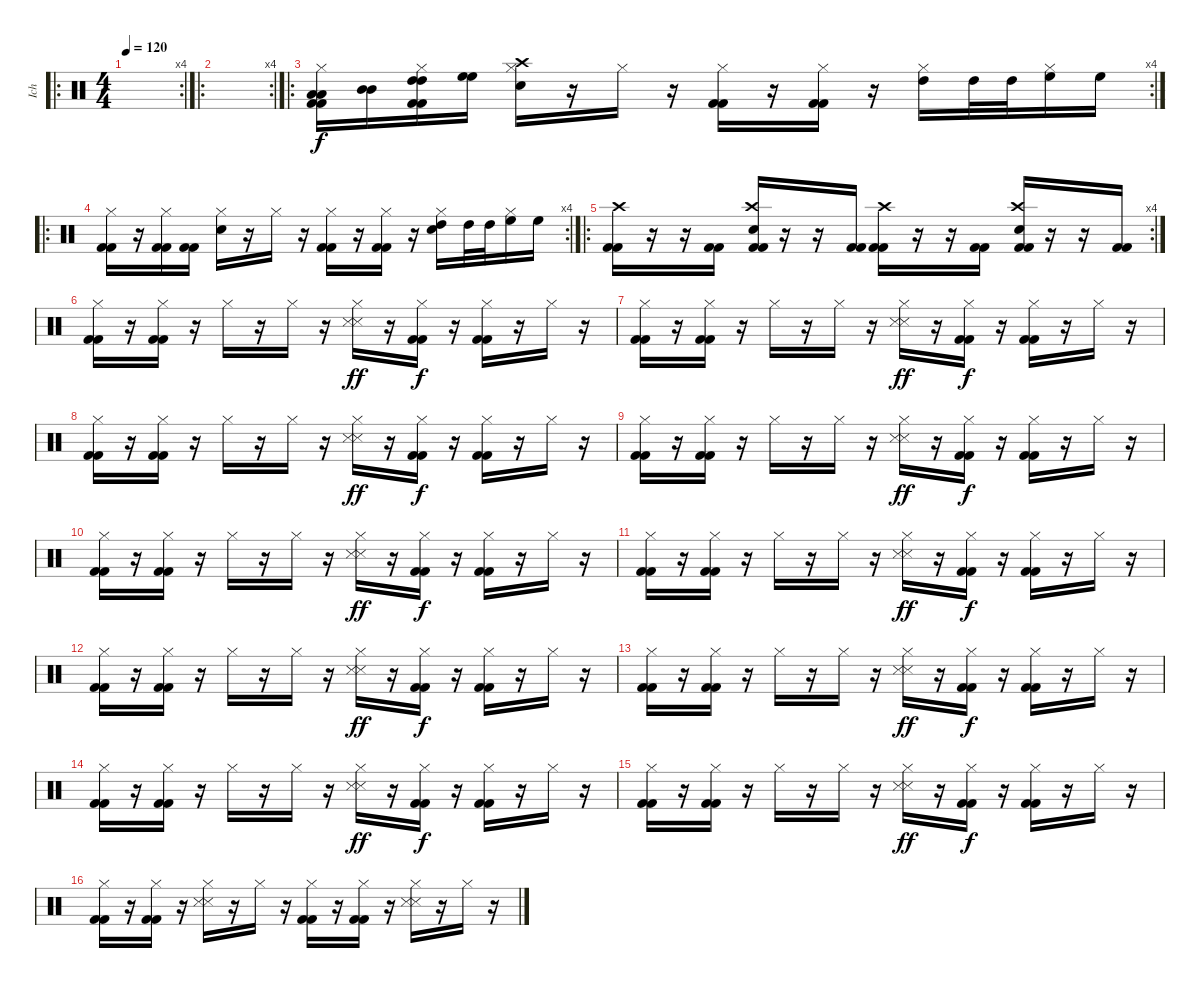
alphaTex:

\track ("Ich" "Ich") {instrument percussion}
\staff {score}
\articulation defaults
\ro
\rc 4
\ts (4 4)
\tempo 120
\clef neutral
\ks c
|
\ro
\rc 4
|
\ro
\rc 4
("Hi-Hat (closed)" "Low Tom (hit)" "Low Tom (hit)" "Kick (hit) 2" "Kick (hit) 2").16 ("Mid Tom (hit)" "Mid Tom (hit)").16 ("Hi-Hat (closed)" "High Tom (hit)" "High Tom (hit)" "Kick (hit) 2" "Kick (hit) 2").16 ("High Floor Tom (hit)" "High Floor Tom (hit)").16 ("Hi-Hat (closed)" "Crash high (hit)" "Snare (hit) 2").16 r.16 "Hi-Hat (closed)".16 r.16 ("Hi-Hat (closed)" "Kick (hit) 2" "Kick (hit) 2").16 r.16 ("Hi-Hat (closed)" "Kick (hit) 2" "Kick (hit) 2").16 r.16 ("Hi-Hat (closed)" "High Tom (hit)").16 "High Tom (hit)".32 "High Tom (hit)".32 ("Hi-Hat (closed)" "High Floor Tom (hit)").16 "High Floor Tom (hit)".16 |
\ro
\rc 4
("Hi-Hat (closed)" "Kick (hit) 2" "Kick (hit) 2").16 r.16 ("Hi-Hat (closed)" "Kick (hit) 2" "Kick (hit) 2").16 ("Kick (hit) 2" "Kick (hit) 2").16 ("Hi-Hat (closed)" "Snare (hit) 2").16 r.16 "Hi-Hat (closed)".16 r.16 ("Hi-Hat (closed)" "Kick (hit) 2" "Kick (hit) 2").16 r.16 ("Hi-Hat (closed)" "Kick (hit) 2" "Kick (hit) 2").16 r.16 ("Hi-Hat (closed)" "High Tom (hit)" "Snare (hit) 2").16 "High Tom (hit)".32 "High Tom (hit)".32 ("Hi-Hat (closed)" "High Floor Tom (hit)").16 "High Floor Tom (hit)".16 |
\ro
\rc 4
("Crash high (hit)" "Kick (hit) 2" "Kick (hit) 2").16 r.16 r.16 ("Kick (hit) 2" "Kick (hit) 2").16 ("Crash high (hit)" "Kick (hit) 2" "Kick (hit) 2" "Snare (hit) 2").16 r.16 r.16 ("Kick (hit) 2" "Kick (hit) 2").16 ("Crash high (hit)" "Kick (hit) 2" "Kick (hit) 2").16 r.16 r.16 ("Kick (hit) 2" "Kick (hit) 2").16 ("Crash high (hit)" "Kick (hit) 2" "Kick (hit) 2" "Snare (hit) 2").16 r.16 r.16 ("Kick (hit) 2" "Kick (hit) 2").16 |
("Hi-Hat (closed)" "Kick (hit) 2" "Kick (hit) 2").16 r.16 ("Hi-Hat (closed)" "Kick (hit) 2" "Kick (hit) 2").16 r.16 "Hi-Hat (closed)".16 r.16 "Hi-Hat (closed)".16 r.16 ("Hi-Hat (closed)" "Snare (side stick) 3" "Snare (side stick) 3").16{dy ff} r.16 ("Hi-Hat (closed)" "Kick (hit) 2" "Kick (hit) 2").16{dy f} r.16 ("Hi-Hat (closed)" "Kick (hit) 2" "Kick (hit) 2").16 r.16 "Hi-Hat (closed)".16 r.16 |
("Hi-Hat (closed)" "Kick (hit) 2" "Kick (hit) 2").16 r.16 ("Hi-Hat (closed)" "Kick (hit) 2" "Kick (hit) 2").16 r.16 "Hi-Hat (closed)".16 r.16 "Hi-Hat (closed)".16 r.16 ("Hi-Hat (closed)" "Snare (side stick) 3" "Snare (side stick) 3").16{dy ff} r.16 ("Hi-Hat (closed)" "Kick (hit) 2" "Kick (hit) 2").16{dy f} r.16 ("Hi-Hat (closed)" "Kick (hit) 2" "Kick (hit) 2").16 r.16 "Hi-Hat (closed)".16 r.16 |
("Hi-Hat (closed)" "Kick (hit) 2" "Kick (hit) 2").16 r.16 ("Hi-Hat (closed)" "Kick (hit) 2" "Kick (hit) 2").16 r.16 "Hi-Hat (closed)".16 r.16 "Hi-Hat (closed)".16 r.16 ("Hi-Hat (closed)" "Snare (side stick) 3" "Snare (side stick) 3").16{dy ff} r.16 ("Hi-Hat (closed)" "Kick (hit) 2" "Kick (hit) 2").16{dy f} r.16 ("Hi-Hat (closed)" "Kick (hit) 2" "Kick (hit) 2").16 r.16 "Hi-Hat (closed)".16 r.16 |
("Hi-Hat (closed)" "Kick (hit) 2" "Kick (hit) 2").16 r.16 ("Hi-Hat (closed)" "Kick (hit) 2" "Kick (hit) 2").16 r.16 "Hi-Hat (closed)".16 r.16 "Hi-Hat (closed)".16 r.16 ("Hi-Hat (closed)" "Snare (side stick) 3" "Snare (side stick) 3").16{dy ff} r.16 ("Hi-Hat (closed)" "Kick (hit) 2" "Kick (hit) 2").16{dy f} r.16 ("Hi-Hat (closed)" "Kick (hit) 2" "Kick (hit) 2").16 r.16 "Hi-Hat (closed)".16 r.16 |
("Hi-Hat (closed)" "Kick (hit) 2" "Kick (hit) 2").16 r.16 ("Hi-Hat (closed)" "Kick (hit) 2" "Kick (hit) 2").16 r.16 "Hi-Hat (closed)".16 r.16 "Hi-Hat (closed)".16 r.16 ("Hi-Hat (closed)" "Snare (side stick) 3" "Snare (side stick) 3").16{dy ff} r.16 ("Hi-Hat (closed)" "Kick (hit) 2" "Kick (hit) 2").16{dy f} r.16 ("Hi-Hat (closed)" "Kick (hit) 2" "Kick (hit) 2").16 r.16 "Hi-Hat (closed)".16 r.16 |
("Hi-Hat (closed)" "Kick (hit) 2" "Kick (hit) 2").16 r.16 ("Hi-Hat (closed)" "Kick (hit) 2" "Kick (hit) 2").16 r.16 "Hi-Hat (closed)".16 r.16 "Hi-Hat (closed)".16 r.16 ("Hi-Hat (closed)" "Snare (side stick) 3" "Snare (side stick) 3").16{dy ff} r.16 ("Hi-Hat (closed)" "Kick (hit) 2" "Kick (hit) 2").16{dy f} r.16 ("Hi-Hat (closed)" "Kick (hit) 2" "Kick (hit) 2").16 r.16 "Hi-Hat (closed)".16 r.16 |
("Hi-Hat (closed)" "Kick (hit) 2" "Kick (hit) 2").16 r.16 ("Hi-Hat (closed)" "Kick (hit) 2" "Kick (hit) 2").16 r.16 "Hi-Hat (closed)".16 r.16 "Hi-Hat (closed)".16 r.16 ("Hi-Hat (closed)" "Snare (side stick) 3" "Snare (side stick) 3").16{dy ff} r.16 ("Hi-Hat (closed)" "Kick (hit) 2" "Kick (hit) 2").16{dy f} r.16 ("Hi-Hat (closed)" "Kick (hit) 2" "Kick (hit) 2").16 r.16 "Hi-Hat (closed)".16 r.16 |
("Hi-Hat (closed)" "Kick (hit) 2" "Kick (hit) 2").16 r.16 ("Hi-Hat (closed)" "Kick (hit) 2" "Kick (hit) 2").16 r.16 "Hi-Hat (closed)".16 r.16 "Hi-Hat (closed)".16 r.16 ("Hi-Hat (closed)" "Snare (side stick) 3" "Snare (side stick) 3").16{dy ff} r.16 ("Hi-Hat (closed)" "Kick (hit) 2" "Kick (hit) 2").16{dy f} r.16 ("Hi-Hat (closed)" "Kick (hit) 2" "Kick (hit) 2").16 r.16 "Hi-Hat (closed)".16 r.16 |
("Hi-Hat (closed)" "Kick (hit) 2" "Kick (hit) 2").16 r.16 ("Hi-Hat (closed)" "Kick (hit) 2" "Kick (hit) 2").16 r.16 "Hi-Hat (closed)".16 r.16 "Hi-Hat (closed)".16 r.16 ("Hi-Hat (closed)" "Snare (side stick) 3" "Snare (side stick) 3").16{dy ff} r.16 ("Hi-Hat (closed)" "Kick (hit) 2" "Kick (hit) 2").16{dy f} r.16 ("Hi-Hat (closed)" "Kick (hit) 2" "Kick (hit) 2").16 r.16 "Hi-Hat (closed)".16 r.16 |
("Hi-Hat (closed)" "Kick (hit) 2" "Kick (hit) 2").16 r.16 ("Hi-Hat (closed)" "Kick (hit) 2" "Kick (hit) 2").16 r.16 "Hi-Hat (closed)".16 r.16 "Hi-Hat (closed)".16 r.16 ("Hi-Hat (closed)" "Snare (side stick) 3" "Snare (side stick) 3").16{dy ff} r.16 ("Hi-Hat (closed)" "Kick (hit) 2" "Kick (hit) 2").16{dy f} r.16 ("Hi-Hat (closed)" "Kick (hit) 2" "Kick (hit) 2").16 r.16 "Hi-Hat (closed)".16 r.16 |
("Hi-Hat (closed)" "Kick (hit) 2" "Kick (hit) 2").16 r.16 ("Hi-Hat (closed)" "Kick (hit) 2" "Kick (hit) 2").16 r.16 ("Hi-Hat (closed)" "Snare (side stick) 3" "Snare (side stick) 3").16 r.16 "Hi-Hat (closed)".16 r.16 ("Hi-Hat (closed)" "Kick (hit) 2" "Kick (hit) 2").16 r.16 ("Hi-Hat (closed)" "Kick (hit) 2" "Kick (hit) 2").16 r.16 ("Hi-Hat (closed)" "Snare (side stick) 3" "Snare (side stick) 3").16 r.16 "Hi-Hat (closed)".16 r.16
